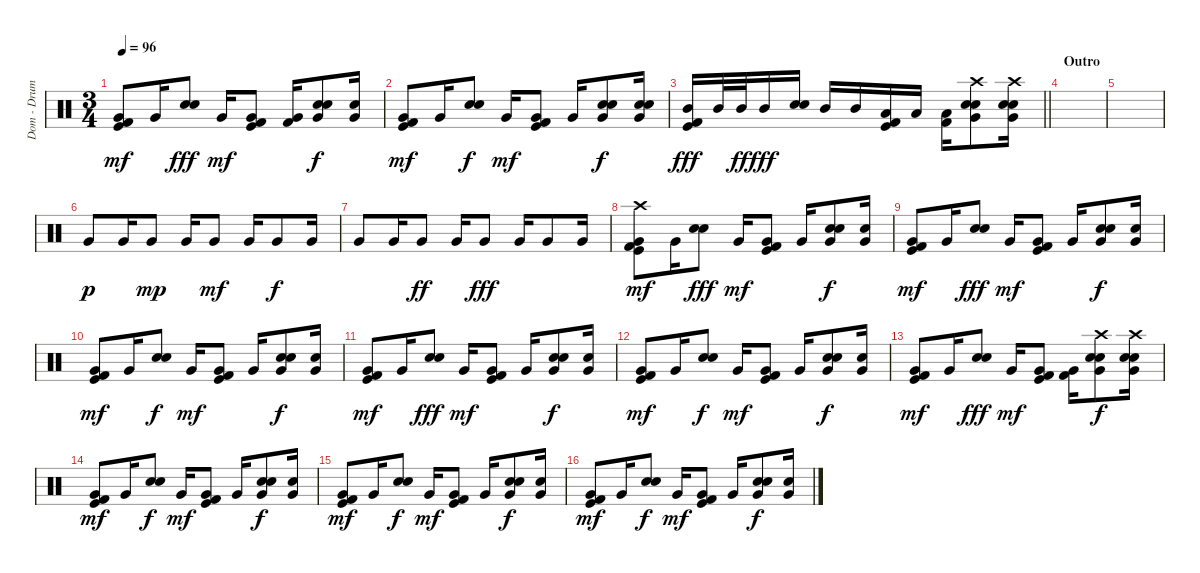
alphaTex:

\track ("Dom - Drums" "Dom - Drum") {instrument percussion}
\staff {score}
\articulation defaults
\ts (3 4)
\tempo 96
\clef neutral
\ks c
("Very Low Tom (hit)" "Kick (hit)" "Kick (hit) 2").8{dy mf} "Very Low Tom (hit)".16 ("Electric Snare (hit)" "Snare (hit) 2").8{dy fff} "Very Low Tom (hit)".16{dy mf} ("Very Low Tom (hit)" "Kick (hit)" "Kick (hit) 2").8 ("Very Low Tom (hit)" "Kick (hit) 2").16 ("Very Low Tom (hit)" "Snare (hit) 2" "Hand Clap (hit)").8{dy f} ("Very Low Tom (hit)" "Hand Clap (hit)").16 |
("Very Low Tom (hit)" "Kick (hit)" "Kick (hit) 2").8{dy mf} "Very Low Tom (hit)".16 ("Electric Snare (hit)" "Snare (hit) 2").8{dy f} "Very Low Tom (hit)".16{dy mf} ("Very Low Tom (hit)" "Kick (hit)" "Kick (hit) 2").8 "Very Low Tom (hit)".16 ("Very Low Tom (hit)" "Snare (hit) 2" "Hand Clap (hit)").8{dy f} ("Very Low Tom (hit)" "Snare (hit) 2" "Hand Clap (hit)").16 |
\barLineRight lightlight
("Mid Tom (hit)" "Kick (hit)" "Kick (hit) 2").16{dy fff} "Mid Tom (hit)".32 "Mid Tom (hit)".32{dy ff} "Mid Tom (hit)".16{dy fff} ("Electric Snare (hit)" "Snare (hit) 2").16 "Mid Tom (hit)".16 "Mid Tom (hit)".16 ("Low Tom (hit)" "Kick (hit)" "Kick (hit) 2").16 "Low Tom (hit)".16 ("Low Tom (hit)" "Kick (hit) 2").16 ("Crash high (hit)" "Very Low Tom (hit)" "Snare (hit) 2" "Hand Clap (hit)").8 ("Crash high (hit)" "Very Low Tom (hit)" "Snare (hit) 2" "Hand Clap (hit)").16 |
\section ("" "Outro")
|
|
"Very Low Tom (hit)".8{dy p} "Very Low Tom (hit)".16 "Very Low Tom (hit)".8{dy mp} "Very Low Tom (hit)".16 "Very Low Tom (hit)".8{dy mf} "Very Low Tom (hit)".16 "Very Low Tom (hit)".8{dy f} "Very Low Tom (hit)".16 |
"Very Low Tom (hit)".8 "Very Low Tom (hit)".16 "Very Low Tom (hit)".8{dy ff} "Very Low Tom (hit)".16 "Very Low Tom (hit)".8{dy fff} "Very Low Tom (hit)".16 "Very Low Tom (hit)".8 "Very Low Tom (hit)".16 |
("Crash high (hit)" "Very Low Tom (hit)" "Kick (hit)" "Kick (hit) 2").8{dy mf} "Very Low Tom (hit)".16 ("Electric Snare (hit)" "Snare (hit) 2").8{dy fff} "Very Low Tom (hit)".16{dy mf} ("Very Low Tom (hit)" "Kick (hit)" "Kick (hit) 2").8 "Very Low Tom (hit)".16 ("Very Low Tom (hit)" "Snare (hit) 2" "Hand Clap (hit)").8{dy f} ("Very Low Tom (hit)" "Hand Clap (hit)").16 |
("Very Low Tom (hit)" "Kick (hit)" "Kick (hit) 2").8{dy mf} "Very Low Tom (hit)".16 ("Electric Snare (hit)" "Snare (hit) 2").8{dy fff} "Very Low Tom (hit)".16{dy mf} ("Very Low Tom (hit)" "Kick (hit)" "Kick (hit) 2").8 "Very Low Tom (hit)".16 ("Very Low Tom (hit)" "Snare (hit) 2" "Hand Clap (hit)").8{dy f} ("Very Low Tom (hit)" "Hand Clap (hit)").16 |
("Very Low Tom (hit)" "Kick (hit)" "Kick (hit) 2").8{dy mf} "Very Low Tom (hit)".16 ("Electric Snare (hit)" "Snare (hit) 2").8{dy f} "Very Low Tom (hit)".16{dy mf} ("Very Low Tom (hit)" "Kick (hit)" "Kick (hit) 2").8 "Very Low Tom (hit)".16 ("Very Low Tom (hit)" "Snare (hit) 2" "Hand Clap (hit)").8{dy f} ("Very Low Tom (hit)" "Hand Clap (hit)").16 |
("Very Low Tom (hit)" "Kick (hit)" "Kick (hit) 2").8{dy mf} "Very Low Tom (hit)".16 ("Electric Snare (hit)" "Snare (hit) 2").8{dy fff} "Very Low Tom (hit)".16{dy mf} ("Very Low Tom (hit)" "Kick (hit)" "Kick (hit) 2").8 "Very Low Tom (hit)".16 ("Very Low Tom (hit)" "Snare (hit) 2" "Hand Clap (hit)").8{dy f} ("Very Low Tom (hit)" "Hand Clap (hit)").16 |
("Very Low Tom (hit)" "Kick (hit)" "Kick (hit) 2").8{dy mf} "Very Low Tom (hit)".16 ("Electric Snare (hit)" "Snare (hit) 2").8{dy f} "Very Low Tom (hit)".16{dy mf} ("Very Low Tom (hit)" "Kick (hit)" "Kick (hit) 2").8 "Very Low Tom (hit)".16 ("Very Low Tom (hit)" "Snare (hit) 2" "Hand Clap (hit)").8{dy f} ("Very Low Tom (hit)" "Hand Clap (hit)").16 |
("Very Low Tom (hit)" "Kick (hit)" "Kick (hit) 2").8{dy mf} "Very Low Tom (hit)".16 ("Electric Snare (hit)" "Snare (hit) 2").8{dy fff} "Very Low Tom (hit)".16{dy mf} ("Very Low Tom (hit)" "Kick (hit)" "Kick (hit) 2").8 ("Very Low Tom (hit)" "Kick (hit) 2").16 ("Crash high (hit)" "Very Low Tom (hit)" "Snare (hit) 2" "Hand Clap (hit)").8{dy f} ("Crash high (hit)" "Very Low Tom (hit)" "Snare (hit) 2" "Hand Clap (hit)").16 |
("Very Low Tom (hit)" "Kick (hit)" "Kick (hit) 2").8{dy mf} "Very Low Tom (hit)".16 ("Electric Snare (hit)" "Snare (hit) 2").8{dy f} "Very Low Tom (hit)".16{dy mf} ("Very Low Tom (hit)" "Kick (hit)" "Kick (hit) 2").8 "Very Low Tom (hit)".16 ("Very Low Tom (hit)" "Snare (hit) 2" "Hand Clap (hit)").8{dy f} ("Very Low Tom (hit)" "Hand Clap (hit)").16 |
("Very Low Tom (hit)" "Kick (hit)" "Kick (hit) 2").8{dy mf} "Very Low Tom (hit)".16 ("Electric Snare (hit)" "Snare (hit) 2").8{dy f} "Very Low Tom (hit)".16{dy mf} ("Very Low Tom (hit)" "Kick (hit)" "Kick (hit) 2").8 "Very Low Tom (hit)".16 ("Very Low Tom (hit)" "Snare (hit) 2" "Hand Clap (hit)").8{dy f} ("Very Low Tom (hit)" "Hand Clap (hit)").16 |
("Very Low Tom (hit)" "Kick (hit)" "Kick (hit) 2").8{dy mf} "Very Low Tom (hit)".16 ("Electric Snare (hit)" "Snare (hit) 2").8{dy f} "Very Low Tom (hit)".16{dy mf} ("Very Low Tom (hit)" "Kick (hit)" "Kick (hit) 2").8 "Very Low Tom (hit)".16 ("Very Low Tom (hit)" "Snare (hit) 2" "Hand Clap (hit)").8{dy f} ("Very Low Tom (hit)" "Hand Clap (hit)").16
